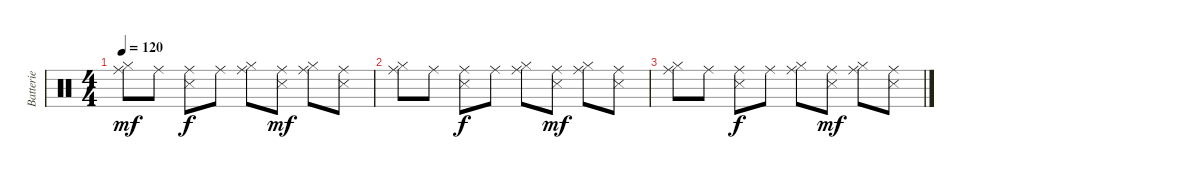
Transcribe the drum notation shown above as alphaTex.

\track ("Batterie" "Batterie") {instrument percussion}
\staff {score}
\articulation defaults
\ts (4 4)
\tempo 120
\clef neutral
\ks c
("Ride (middle)" "Hi-Hat (closed)").8{dy mf volume 0} "Ride (middle)".8 ("Ride (middle)" "Snare (side stick) 3").8{dy f} "Ride (middle)".8 ("Ride (middle)" "Hi-Hat (closed)").8 ("Ride (middle)" "Snare (side stick) 3").8{dy mf} ("Ride (middle)" "Hi-Hat (closed)").8 ("Ride (middle)" "Snare (side stick) 3").8 |
("Ride (middle)" "Hi-Hat (closed)").8 "Ride (middle)".8 ("Ride (middle)" "Snare (side stick) 3").8{dy f} "Ride (middle)".8 ("Ride (middle)" "Hi-Hat (closed)").8 ("Ride (middle)" "Snare (side stick) 3").8{dy mf} ("Ride (middle)" "Hi-Hat (closed)").8 ("Ride (middle)" "Snare (side stick) 3").8 |
("Ride (middle)" "Hi-Hat (closed)").8 "Ride (middle)".8 ("Ride (middle)" "Snare (side stick) 3").8{dy f} "Ride (middle)".8 ("Ride (middle)" "Hi-Hat (closed)").8 ("Ride (middle)" "Snare (side stick) 3").8{dy mf} ("Ride (middle)" "Hi-Hat (closed)").8 ("Ride (middle)" "Snare (side stick) 3").8
